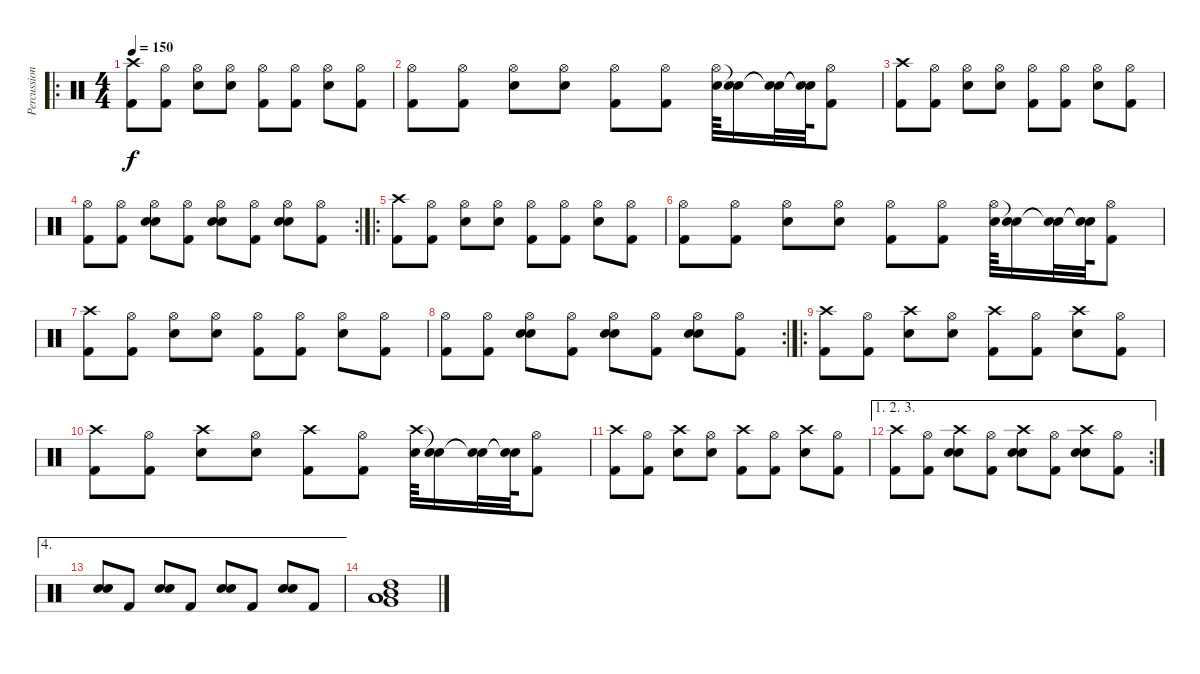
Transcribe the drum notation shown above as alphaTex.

\track ("Percussions" "Percussion") {instrument percussion}
\staff {score}
\articulation defaults
\ro
\ts (4 4)
\tempo 150
\clef neutral
\ks c
("Crash high (hit)" "Kick (hit) 2").8{dy f} ("Hi-Hat (open)" "Kick (hit) 2").8 ("Hi-Hat (open)" "Electric Snare (hit)").8 ("Hi-Hat (open)" "Electric Snare (hit)").8 ("Hi-Hat (open)" "Kick (hit) 2").8 ("Hi-Hat (open)" "Kick (hit) 2").8 ("Hi-Hat (open)" "Electric Snare (hit)").8 ("Hi-Hat (open)" "Kick (hit) 2").8 |
("Hi-Hat (open)" "Kick (hit) 2").8 ("Hi-Hat (open)" "Kick (hit) 2").8 ("Hi-Hat (open)" "Electric Snare (hit)").8 ("Hi-Hat (open)" "Electric Snare (hit)").8 ("Hi-Hat (open)" "Kick (hit) 2").8 ("Hi-Hat (open)" "Kick (hit) 2").8 ("Hi-Hat (open)" "Electric Snare (hit)").64 ("Snare (hit)"{t} "Electric Snare (hit)").16 ("Snare (hit)"{t} "Electric Snare (hit)"{t}).32 ("Snare (hit)"{t} "Snare (hit)"{t}).64 ("Hi-Hat (open)" "Kick (hit) 2").8 |
("Crash high (hit)" "Kick (hit) 2").8 ("Hi-Hat (open)" "Kick (hit) 2").8 ("Hi-Hat (open)" "Electric Snare (hit)").8 ("Hi-Hat (open)" "Electric Snare (hit)").8 ("Hi-Hat (open)" "Kick (hit) 2").8 ("Hi-Hat (open)" "Kick (hit) 2").8 ("Hi-Hat (open)" "Electric Snare (hit)").8 ("Hi-Hat (open)" "Kick (hit) 2").8 |
\rc 2
("Hi-Hat (open)" "Kick (hit) 2").8 ("Hi-Hat (open)" "Kick (hit) 2").8 ("Hi-Hat (open)" "Electric Snare (hit)" "Electric Snare (hit)").8{bu 240} ("Hi-Hat (open)" "Kick (hit) 2").8 ("Hi-Hat (open)" "Electric Snare (hit)" "Electric Snare (hit)").8{bu 240} ("Hi-Hat (open)" "Kick (hit) 2").8 ("Hi-Hat (open)" "Electric Snare (hit)" "Electric Snare (hit)").8{bu 240} ("Hi-Hat (open)" "Kick (hit) 2").8 |
\ro
("Crash high (hit)" "Kick (hit) 2").8 ("Hi-Hat (open)" "Kick (hit) 2").8 ("Hi-Hat (open)" "Electric Snare (hit)").8 ("Hi-Hat (open)" "Electric Snare (hit)").8 ("Hi-Hat (open)" "Kick (hit) 2").8 ("Hi-Hat (open)" "Kick (hit) 2").8 ("Hi-Hat (open)" "Electric Snare (hit)").8 ("Hi-Hat (open)" "Kick (hit) 2").8 |
("Hi-Hat (open)" "Kick (hit) 2").8 ("Hi-Hat (open)" "Kick (hit) 2").8 ("Hi-Hat (open)" "Electric Snare (hit)").8 ("Hi-Hat (open)" "Electric Snare (hit)").8 ("Hi-Hat (open)" "Kick (hit) 2").8 ("Hi-Hat (open)" "Kick (hit) 2").8 ("Hi-Hat (open)" "Electric Snare (hit)").64 ("Snare (hit)"{t} "Electric Snare (hit)").16 ("Snare (hit)"{t} "Electric Snare (hit)"{t}).32 ("Snare (hit)"{t} "Snare (hit)"{t}).64 ("Hi-Hat (open)" "Kick (hit) 2").8 |
("Crash high (hit)" "Kick (hit) 2").8 ("Hi-Hat (open)" "Kick (hit) 2").8 ("Hi-Hat (open)" "Electric Snare (hit)").8 ("Hi-Hat (open)" "Electric Snare (hit)").8 ("Hi-Hat (open)" "Kick (hit) 2").8 ("Hi-Hat (open)" "Kick (hit) 2").8 ("Hi-Hat (open)" "Electric Snare (hit)").8 ("Hi-Hat (open)" "Kick (hit) 2").8 |
\rc 2
("Hi-Hat (open)" "Kick (hit) 2").8 ("Hi-Hat (open)" "Kick (hit) 2").8 ("Hi-Hat (open)" "Electric Snare (hit)" "Electric Snare (hit)").8{bu 240} ("Hi-Hat (open)" "Kick (hit) 2").8 ("Hi-Hat (open)" "Electric Snare (hit)" "Electric Snare (hit)").8{bu 240} ("Hi-Hat (open)" "Kick (hit) 2").8 ("Hi-Hat (open)" "Electric Snare (hit)" "Electric Snare (hit)").8{bu 240} ("Hi-Hat (open)" "Kick (hit) 2").8 |
\ro
("Crash high (hit)" "Kick (hit) 2").8 ("Hi-Hat (open)" "Kick (hit) 2").8 ("Crash high (hit)" "Electric Snare (hit)").8 ("Hi-Hat (open)" "Electric Snare (hit)").8 ("Crash high (hit)" "Kick (hit) 2").8 ("Hi-Hat (open)" "Kick (hit) 2").8 ("Crash high (hit)" "Electric Snare (hit)").8 ("Hi-Hat (open)" "Kick (hit) 2").8 |
("Crash high (hit)" "Kick (hit) 2").8 ("Hi-Hat (open)" "Kick (hit) 2").8 ("Crash high (hit)" "Electric Snare (hit)").8 ("Hi-Hat (open)" "Electric Snare (hit)").8 ("Crash high (hit)" "Kick (hit) 2").8 ("Hi-Hat (open)" "Kick (hit) 2").8 ("Crash high (hit)" "Electric Snare (hit)").64 ("Snare (hit)"{t} "Electric Snare (hit)").16 ("Snare (hit)"{t} "Electric Snare (hit)"{t}).32 ("Snare (hit)"{t} "Snare (hit)"{t}).64 ("Hi-Hat (open)" "Kick (hit) 2").8 |
("Crash high (hit)" "Kick (hit) 2").8 ("Hi-Hat (open)" "Kick (hit) 2").8 ("Crash high (hit)" "Electric Snare (hit)").8 ("Hi-Hat (open)" "Electric Snare (hit)").8 ("Crash high (hit)" "Kick (hit) 2").8 ("Hi-Hat (open)" "Kick (hit) 2").8 ("Crash high (hit)" "Electric Snare (hit)").8 ("Hi-Hat (open)" "Kick (hit) 2").8 |
\ae (1 2 3)
\rc 2
("Crash high (hit)" "Kick (hit) 2").8 ("Hi-Hat (open)" "Kick (hit) 2").8 ("Crash high (hit)" "Electric Snare (hit)" "Electric Snare (hit)").8{bu 240} ("Hi-Hat (open)" "Kick (hit) 2").8 ("Crash high (hit)" "Electric Snare (hit)" "Electric Snare (hit)").8{bu 240} ("Hi-Hat (open)" "Kick (hit) 2").8 ("Crash high (hit)" "Electric Snare (hit)" "Electric Snare (hit)").8{bu 240} ("Hi-Hat (open)" "Kick (hit) 2").8 |
\ae 4
("Electric Snare (hit)" "Electric Snare (hit)").8{bu 240} "Kick (hit) 2".8 ("Electric Snare (hit)" "Electric Snare (hit)").8{bu 240} "Kick (hit) 2".8 ("Electric Snare (hit)" "Electric Snare (hit)").8{bu 240} "Kick (hit) 2".8 ("Electric Snare (hit)" "Electric Snare (hit)").8{bu 480} "Kick (hit) 2".8 |
("High Tom (hit)" "Mid Tom (hit)" "Low Tom (hit)" "Very Low Tom (hit)" "Low Floor Tom (hit)").1{bu 480}
